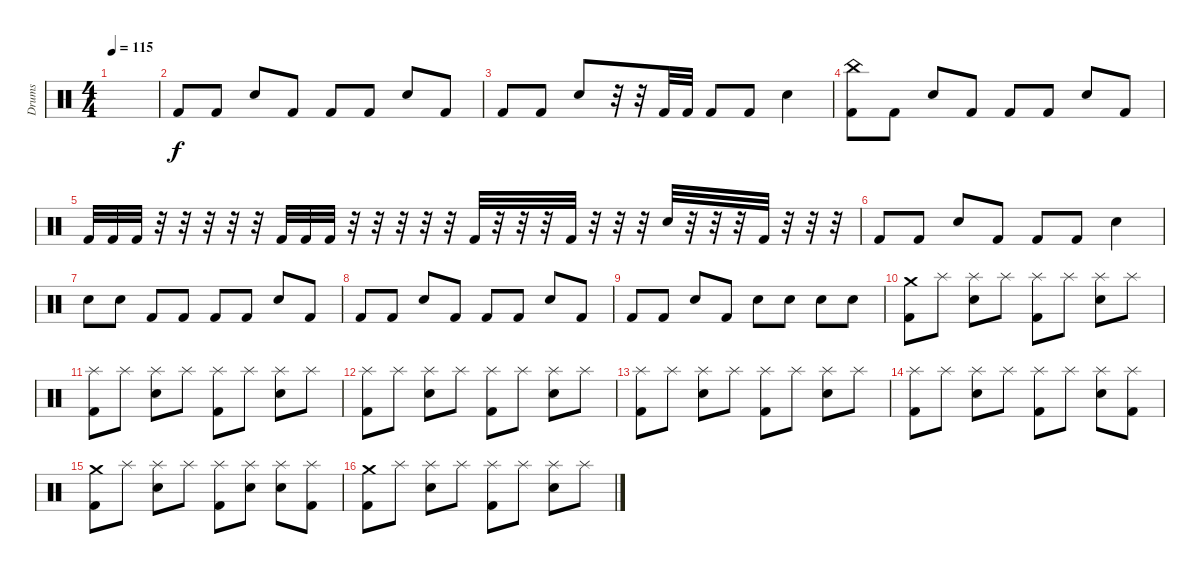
\track ("Drums" "Drums") {instrument percussion}
\staff {score}
\articulation defaults
\ts (4 4)
\tempo 115
\clef neutral
\ks c
|
"Kick (hit) 2".8 "Kick (hit) 2".8 "Snare (hit) 2".8 "Kick (hit) 2".8 "Kick (hit) 2".8 "Kick (hit) 2".8 "Snare (hit) 2".8 "Kick (hit) 2".8 |
"Kick (hit) 2".8 "Kick (hit) 2".8 "Snare (hit) 2".8 r.32 r.32 "Kick (hit) 2".32 "Kick (hit) 2".32 "Kick (hit) 2".8 "Kick (hit) 2".8 "Snare (hit) 2".4 |
("China (hit)" "Kick (hit) 2").8 "Kick (hit) 2".8 "Snare (hit) 2".8 "Kick (hit) 2".8 "Kick (hit) 2".8 "Kick (hit) 2".8 "Snare (hit) 2".8 "Kick (hit) 2".8 |
"Kick (hit) 2".32 "Kick (hit) 2".32 "Kick (hit) 2".32 r.32 r.32 r.32 r.32 r.32 "Kick (hit) 2".32 "Kick (hit) 2".32 "Kick (hit) 2".32 r.32 r.32 r.32 r.32 r.32 "Kick (hit) 2".32 r.32 r.32 r.32 "Kick (hit) 2".32 r.32 r.32 r.32 "Snare (hit) 2".32 r.32 r.32 r.32 "Kick (hit) 2".32 r.32 r.32 r.32 |
"Kick (hit) 2".8 "Kick (hit) 2".8 "Snare (hit) 2".8 "Kick (hit) 2".8 "Kick (hit) 2".8 "Kick (hit) 2".8 "Snare (hit) 2".4 |
"Snare (hit) 2".8 "Snare (hit) 2".8 "Kick (hit) 2".8 "Kick (hit) 2".8 "Kick (hit) 2".8 "Kick (hit) 2".8 "Snare (hit) 2".8 "Kick (hit) 2".8 |
"Kick (hit) 2".8 "Kick (hit) 2".8 "Snare (hit) 2".8 "Kick (hit) 2".8 "Kick (hit) 2".8 "Kick (hit) 2".8 "Snare (hit) 2".8 "Kick (hit) 2".8 |
"Kick (hit) 2".8 "Kick (hit) 2".8 "Snare (hit) 2".8 "Kick (hit) 2".8 "Snare (hit) 2".8 "Snare (hit) 2".8 "Snare (hit) 2".8 "Snare (hit) 2".8 |
("Crash medium (hit)" "Kick (hit) 2").8 "Splash (hit)".8 ("Splash (hit)" "Snare (hit) 2").8 "Splash (hit)".8 ("Splash (hit)" "Kick (hit) 2").8 "Splash (hit)".8 ("Splash (hit)" "Snare (hit) 2").8 "Splash (hit)".8 |
("Splash (hit)" "Kick (hit) 2").8 "Splash (hit)".8 ("Splash (hit)" "Snare (hit) 2").8 "Splash (hit)".8 ("Splash (hit)" "Kick (hit) 2").8 "Splash (hit)".8 ("Splash (hit)" "Snare (hit) 2").8 "Splash (hit)".8 |
("Splash (hit)" "Kick (hit) 2").8 "Splash (hit)".8 ("Splash (hit)" "Snare (hit) 2").8 "Splash (hit)".8 ("Splash (hit)" "Kick (hit) 2").8 "Splash (hit)".8 ("Splash (hit)" "Snare (hit) 2").8 "Splash (hit)".8 |
("Splash (hit)" "Kick (hit) 2").8 "Splash (hit)".8 ("Splash (hit)" "Snare (hit) 2").8 "Splash (hit)".8 ("Splash (hit)" "Kick (hit) 2").8 "Splash (hit)".8 ("Splash (hit)" "Snare (hit) 2").8 "Splash (hit)".8 |
("Splash (hit)" "Kick (hit) 2").8 "Splash (hit)".8 ("Splash (hit)" "Snare (hit) 2").8 "Splash (hit)".8 ("Splash (hit)" "Kick (hit) 2").8 "Splash (hit)".8 ("Splash (hit)" "Snare (hit) 2").8 ("Splash (hit)" "Kick (hit) 2").8 |
("Crash medium (hit)" "Kick (hit) 2").8 "Splash (hit)".8 ("Splash (hit)" "Snare (hit) 2").8 "Splash (hit)".8 ("Splash (hit)" "Kick (hit) 2").8 ("Splash (hit)" "Snare (hit) 2").8 ("Splash (hit)" "Snare (hit) 2").8 ("Splash (hit)" "Kick (hit) 2").8 |
("Crash medium (hit)" "Kick (hit) 2").8 "Splash (hit)".8 ("Splash (hit)" "Snare (hit) 2").8 "Splash (hit)".8 ("Splash (hit)" "Kick (hit) 2").8 "Splash (hit)".8 ("Splash (hit)" "Snare (hit) 2").8 "Splash (hit)".8
